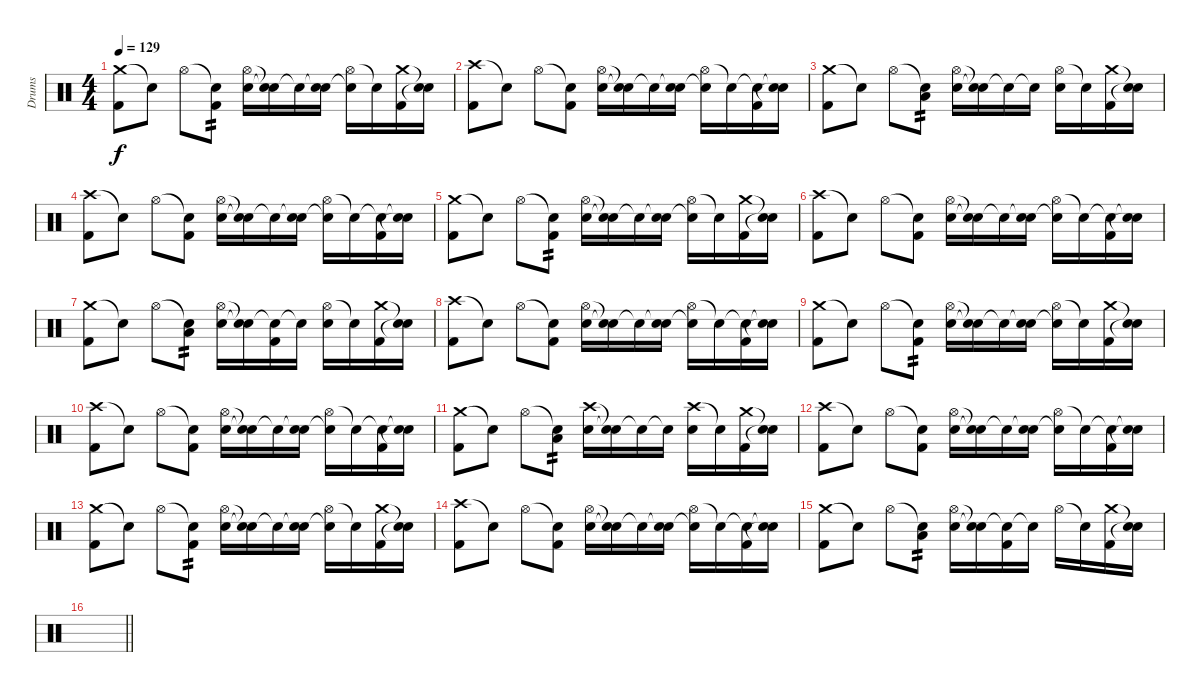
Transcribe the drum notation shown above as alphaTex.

\track ("Drums" "Drums") {instrument percussion}
\staff {score}
\articulation defaults
\ts (4 4)
\tempo 129
\clef neutral
\ks c
("Crash medium (hit)" "Kick (hit) 2").8{dy f} "Snare (hit)"{t}.8 "Hi-Hat (open)".8 ("Snare (hit)"{t} "Kick (hit) 2").8{tp 2} ("Hi-Hat (open)" "Electric Snare (hit)").16 ("Snare (hit)"{t} "Snare (hit)"{t}).16 "Snare (hit)"{t}.16 ("Snare (hit)"{t} "Electric Snare (hit)").16 ("Hi-Hat (open)" "Snare (hit)"{t}).16 "Snare (hit)"{t}.16 ("Crash medium (hit)" "Kick (hit) 2").16 ("Snare (hit)"{t} "Snare (hit)"{t}).16 |
("Crash high (hit)" "Kick (hit) 2").8 "Snare (hit)"{t}.8 "Hi-Hat (open)".8 ("Snare (hit)"{t} "Kick (hit) 2").8 ("Hi-Hat (open)" "Electric Snare (hit)").16 ("Snare (hit)"{t} "Snare (hit)"{t}).16 "Snare (hit)"{t}.16 ("Snare (hit)"{t} "Electric Snare (hit)").16 ("Hi-Hat (open)" "Snare (hit)"{t}).16 "Snare (hit)"{t}.16 ("Snare (hit)"{t} "Kick (hit) 2").16 ("Snare (hit)"{t} "Snare (hit)"{t}).16 |
("Crash medium (hit)" "Kick (hit) 2").8 "Snare (hit)"{t}.8 "Hi-Hat (open)".8 ("Snare (hit)"{t} "Low Tom (hit)").8{tp 2} ("Hi-Hat (open)" "Electric Snare (hit)").16 ("Snare (hit)"{t} "Snare (hit)"{t}).16 "Snare (hit)"{t}.16 "Snare (hit)"{t}.16 ("Hi-Hat (open)" "Electric Snare (hit)").16 "Snare (hit)"{t}.16 ("Crash medium (hit)" "Kick (hit) 2").16 ("Snare (hit)"{t} "Snare (hit)"{t}).16 |
("Crash high (hit)" "Kick (hit) 2").8 "Snare (hit)"{t}.8 "Hi-Hat (open)".8 ("Snare (hit)"{t} "Kick (hit) 2").8 ("Hi-Hat (open)" "Electric Snare (hit)").16 ("Snare (hit)"{t} "Snare (hit)"{t}).16 "Snare (hit)"{t}.16 ("Snare (hit)"{t} "Electric Snare (hit)").16 ("Hi-Hat (open)" "Snare (hit)"{t}).16 "Snare (hit)"{t}.16 ("Snare (hit)"{t} "Kick (hit) 2").16 ("Snare (hit)"{t} "Snare (hit)"{t}).16 |
("Crash medium (hit)" "Kick (hit) 2").8 "Snare (hit)"{t}.8 "Hi-Hat (open)".8 ("Snare (hit)"{t} "Kick (hit) 2").8{tp 2} ("Hi-Hat (open)" "Electric Snare (hit)").16 ("Snare (hit)"{t} "Snare (hit)"{t}).16 "Snare (hit)"{t}.16 ("Snare (hit)"{t} "Electric Snare (hit)").16 ("Hi-Hat (open)" "Snare (hit)"{t}).16 "Snare (hit)"{t}.16 ("Crash medium (hit)" "Kick (hit) 2").16 ("Snare (hit)"{t} "Snare (hit)"{t}).16 |
("Crash high (hit)" "Kick (hit) 2").8 "Snare (hit)"{t}.8 "Hi-Hat (open)".8 ("Snare (hit)"{t} "Kick (hit) 2").8 ("Hi-Hat (open)" "Electric Snare (hit)").16 ("Snare (hit)"{t} "Snare (hit)"{t}).16 "Snare (hit)"{t}.16 ("Snare (hit)"{t} "Electric Snare (hit)").16 ("Hi-Hat (open)" "Snare (hit)"{t}).16 "Snare (hit)"{t}.16 ("Snare (hit)"{t} "Kick (hit) 2").16 ("Snare (hit)"{t} "Snare (hit)"{t}).16 |
("Crash medium (hit)" "Kick (hit) 2").8 "Snare (hit)"{t}.8 "Hi-Hat (open)".8 ("Snare (hit)"{t} "Low Tom (hit)").8{tp 2} ("Hi-Hat (open)" "Electric Snare (hit)").16 ("Snare (hit)"{t} "Snare (hit)"{t}).16 ("Snare (hit)"{t} "Kick (hit) 2").16 "Snare (hit)"{t}.16 ("Hi-Hat (open)" "Electric Snare (hit)").16 "Snare (hit)"{t}.16 ("Crash medium (hit)" "Kick (hit) 2").16 ("Snare (hit)"{t} "Snare (hit)"{t}).16 |
("Crash high (hit)" "Kick (hit) 2").8 "Snare (hit)"{t}.8 "Hi-Hat (open)".8 ("Snare (hit)"{t} "Kick (hit) 2").8 ("Hi-Hat (open)" "Electric Snare (hit)").16 ("Snare (hit)"{t} "Snare (hit)"{t}).16 "Snare (hit)"{t}.16 ("Snare (hit)"{t} "Electric Snare (hit)").16 ("Hi-Hat (open)" "Snare (hit)"{t}).16 "Snare (hit)"{t}.16 ("Snare (hit)"{t} "Kick (hit) 2").16 ("Snare (hit)"{t} "Snare (hit)"{t}).16 |
("Crash medium (hit)" "Kick (hit) 2").8 "Snare (hit)"{t}.8 "Hi-Hat (open)".8 ("Snare (hit)"{t} "Kick (hit) 2").8{tp 2} ("Hi-Hat (open)" "Electric Snare (hit)").16 ("Snare (hit)"{t} "Snare (hit)"{t}).16 "Snare (hit)"{t}.16 ("Snare (hit)"{t} "Electric Snare (hit)").16 ("Hi-Hat (open)" "Snare (hit)"{t}).16 "Snare (hit)"{t}.16 ("Crash medium (hit)" "Kick (hit) 2").16 ("Snare (hit)"{t} "Snare (hit)"{t}).16 |
("Crash high (hit)" "Kick (hit) 2").8 "Snare (hit)"{t}.8 "Hi-Hat (open)".8 ("Snare (hit)"{t} "Kick (hit) 2").8 ("Hi-Hat (open)" "Electric Snare (hit)").16 ("Snare (hit)"{t} "Snare (hit)"{t}).16 "Snare (hit)"{t}.16 ("Snare (hit)"{t} "Electric Snare (hit)").16 ("Hi-Hat (open)" "Snare (hit)"{t}).16 "Snare (hit)"{t}.16 ("Snare (hit)"{t} "Kick (hit) 2").16 ("Snare (hit)"{t} "Snare (hit)"{t}).16 |
("Crash medium (hit)" "Kick (hit) 2").8 "Snare (hit)"{t}.8 "Hi-Hat (open)".8 ("Snare (hit)"{t} "Low Tom (hit)").8{tp 2} ("Crash high (hit)" "Electric Snare (hit)").16 ("Snare (hit)"{t} "Snare (hit)"{t}).16 "Snare (hit)"{t}.16 "Snare (hit)"{t}.16 ("Crash high (hit)" "Electric Snare (hit)").16 "Snare (hit)"{t}.16 ("Crash medium (hit)" "Kick (hit) 2").16 ("Snare (hit)"{t} "Snare (hit)"{t}).16 |
("Crash high (hit)" "Kick (hit) 2").8 "Snare (hit)"{t}.8 "Hi-Hat (open)".8 ("Snare (hit)"{t} "Kick (hit) 2").8 ("Hi-Hat (open)" "Electric Snare (hit)").16 ("Snare (hit)"{t} "Snare (hit)"{t}).16 "Snare (hit)"{t}.16 ("Snare (hit)"{t} "Electric Snare (hit)").16 ("Hi-Hat (open)" "Snare (hit)"{t}).16 "Snare (hit)"{t}.16 ("Snare (hit)"{t} "Kick (hit) 2").16 ("Snare (hit)"{t} "Snare (hit)"{t}).16 |
("Crash medium (hit)" "Kick (hit) 2").8 "Snare (hit)"{t}.8 "Hi-Hat (open)".8 ("Snare (hit)"{t} "Kick (hit) 2").8{tp 2} ("Hi-Hat (open)" "Electric Snare (hit)").16 ("Snare (hit)"{t} "Snare (hit)"{t}).16 "Snare (hit)"{t}.16 ("Snare (hit)"{t} "Electric Snare (hit)").16 ("Hi-Hat (open)" "Snare (hit)"{t}).16 "Snare (hit)"{t}.16 ("Crash medium (hit)" "Kick (hit) 2").16 ("Snare (hit)"{t} "Snare (hit)"{t}).16 |
("Crash high (hit)" "Kick (hit) 2").8 "Snare (hit)"{t}.8 "Hi-Hat (open)".8 ("Snare (hit)"{t} "Kick (hit) 2").8 ("Hi-Hat (open)" "Electric Snare (hit)").16 ("Snare (hit)"{t} "Snare (hit)"{t}).16 "Snare (hit)"{t}.16 ("Snare (hit)"{t} "Electric Snare (hit)").16 ("Hi-Hat (open)" "Snare (hit)"{t}).16 "Snare (hit)"{t}.16 ("Snare (hit)"{t} "Kick (hit) 2").16 ("Snare (hit)"{t} "Snare (hit)"{t}).16 |
("Crash medium (hit)" "Kick (hit) 2").8 "Snare (hit)"{t}.8 "Hi-Hat (open)".8 ("Snare (hit)"{t} "Low Tom (hit)").8{tp 2} ("Hi-Hat (open)" "Electric Snare (hit)").16 ("Snare (hit)"{t} "Snare (hit)"{t}).16 ("Snare (hit)"{t} "Kick (hit) 2").16 "Snare (hit)"{t}.16 "Hi-Hat (open)".16 "Snare (hit)"{t}.16 ("Crash medium (hit)" "Kick (hit) 2").16 ("Snare (hit)"{t} "Snare (hit)"{t}).16 |
\barLineRight lightlight
